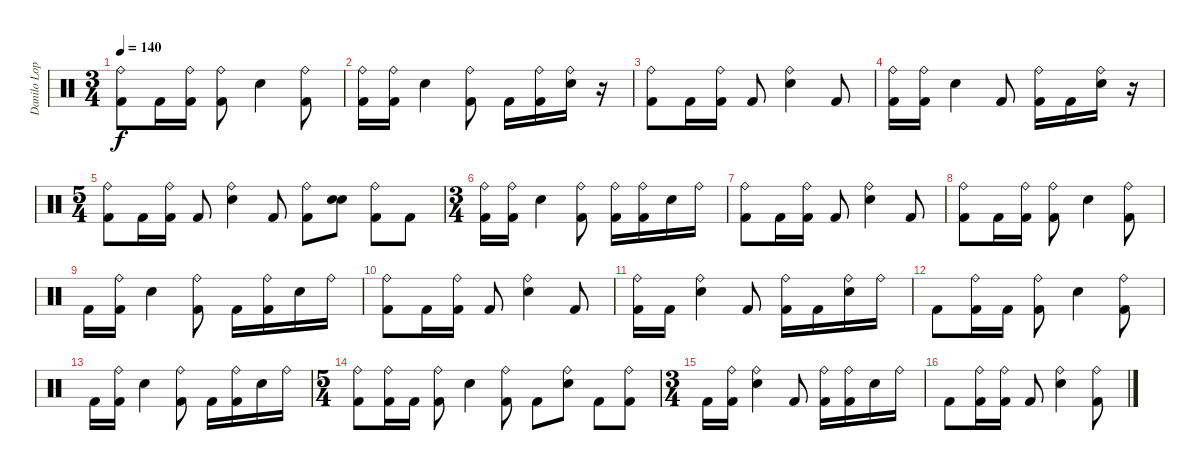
\track ("Danilo Lopes" "Danilo Lop") {instrument percussion}
\staff {score}
\articulation defaults
\ts (3 4)
\tempo 140
\clef neutral
\ks c
("Ride (bell)" "Kick (hit) 2").8{dy f} "Kick (hit) 2".16 ("Ride (bell)" "Kick (hit) 2").16 ("Ride (bell)" "Kick (hit) 2").8 "Snare (hit) 2".4 ("Ride (bell)" "Kick (hit) 2").8 |
("Ride (bell)" "Kick (hit) 2").16 ("Ride (bell)" "Kick (hit) 2").16 "Snare (hit) 2".4 ("Ride (bell)" "Kick (hit) 2").8 "Kick (hit) 2".16 ("Ride (bell)" "Kick (hit) 2").16 ("Ride (bell)" "Snare (hit) 2").16 r.16 |
("Ride (bell)" "Kick (hit) 2").8 "Kick (hit) 2".16 ("Ride (bell)" "Kick (hit) 2").16 "Kick (hit) 2".8 ("Ride (bell)" "Snare (hit) 2").4 "Kick (hit) 2".8 |
("Ride (bell)" "Kick (hit) 2").16 ("Ride (bell)" "Kick (hit) 2").16 "Snare (hit) 2".4 "Kick (hit) 2".8 ("Ride (bell)" "Kick (hit) 2").16 "Kick (hit) 2".16 ("Ride (bell)" "Snare (hit) 2").16 r.16 |
\ts (5 4)
("Ride (bell)" "Kick (hit) 2").8 "Kick (hit) 2".16 ("Ride (bell)" "Kick (hit) 2").16 "Kick (hit) 2".8 ("Ride (bell)" "Snare (hit) 2").4 "Kick (hit) 2".8 ("Ride (bell)" "Kick (hit) 2").8 ("Snare (hit)" "Snare (hit) 2").8 ("Ride (bell)" "Kick (hit) 2").8 "Kick (hit) 2".8 |
\ts (3 4)
("Ride (bell)" "Kick (hit) 2").16 ("Ride (bell)" "Kick (hit) 2").16 "Snare (hit) 2".4 ("Ride (bell)" "Kick (hit) 2").8 ("Ride (bell)" "Kick (hit) 2").16 ("Ride (bell)" "Kick (hit) 2").16 "Snare (hit) 2".16 "Ride (bell)".16 |
("Ride (bell)" "Kick (hit) 2").8 "Kick (hit) 2".16 ("Ride (bell)" "Kick (hit) 2").16 "Kick (hit) 2".8 ("Ride (bell)" "Snare (hit) 2").4 "Kick (hit) 2".8 |
("Ride (bell)" "Kick (hit) 2").8 "Kick (hit) 2".16 ("Ride (bell)" "Kick (hit) 2").16 ("Ride (bell)" "Kick (hit) 2").8 "Snare (hit) 2".4 ("Ride (bell)" "Kick (hit) 2").8 |
"Kick (hit) 2".16 ("Ride (bell)" "Kick (hit) 2").16 "Snare (hit) 2".4 ("Ride (bell)" "Kick (hit) 2").8 "Kick (hit) 2".16 ("Ride (bell)" "Kick (hit) 2").16 "Snare (hit) 2".16 "Ride (bell)".16 |
("Ride (bell)" "Kick (hit) 2").8 "Kick (hit) 2".16 ("Ride (bell)" "Kick (hit) 2").16 "Kick (hit) 2".8 ("Ride (bell)" "Snare (hit) 2").4 "Kick (hit) 2".8 |
("Ride (bell)" "Kick (hit) 2").16 "Kick (hit) 2".16 ("Ride (bell)" "Snare (hit) 2").4 "Kick (hit) 2".8 ("Ride (bell)" "Kick (hit) 2").16 "Kick (hit) 2".16 ("Ride (bell)" "Snare (hit) 2").16 "Ride (bell)".16 |
"Kick (hit) 2".8 ("Ride (bell)" "Kick (hit) 2").16 "Kick (hit) 2".16 ("Ride (bell)" "Kick (hit) 2").8 "Snare (hit) 2".4 ("Ride (bell)" "Kick (hit) 2").8 |
"Kick (hit) 2".16 ("Ride (bell)" "Kick (hit) 2").16 "Snare (hit) 2".4 ("Ride (bell)" "Kick (hit) 2").8 "Kick (hit) 2".16 ("Ride (bell)" "Kick (hit) 2").16 "Snare (hit) 2".16 "Ride (bell)".16 |
\ts (5 4)
("Ride (bell)" "Kick (hit) 2").8 ("Ride (bell)" "Kick (hit) 2").16 "Kick (hit) 2".16 ("Ride (bell)" "Kick (hit) 2").8 "Snare (hit) 2".4 ("Ride (bell)" "Kick (hit) 2").8 "Kick (hit) 2".8 ("Ride (bell)" "Snare (hit) 2").8 "Kick (hit) 2".8 ("Ride (bell)" "Kick (hit) 2").8 |
\ts (3 4)
"Kick (hit) 2".16 ("Ride (bell)" "Kick (hit) 2").16 ("Ride (bell)" "Snare (hit) 2").4 "Kick (hit) 2".8 ("Ride (bell)" "Kick (hit) 2").16 ("Ride (bell)" "Kick (hit) 2").16 "Snare (hit) 2".16 "Ride (bell)".16 |
"Kick (hit) 2".8 ("Ride (bell)" "Kick (hit) 2").16 ("Ride (bell)" "Kick (hit) 2").16 "Kick (hit) 2".8 ("Ride (bell)" "Snare (hit) 2").4 ("Ride (bell)" "Kick (hit) 2").8
